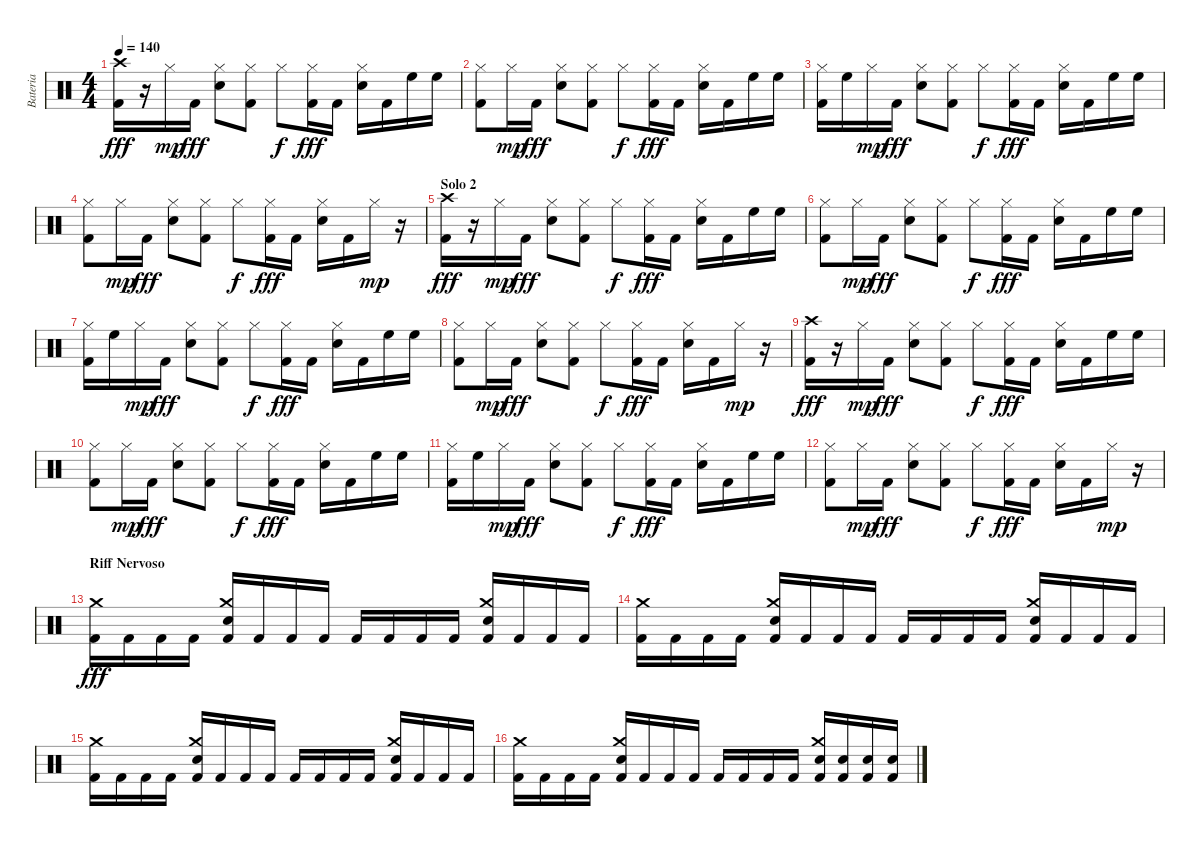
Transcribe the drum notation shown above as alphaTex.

\track ("Bateria" "Bateria") {instrument percussion}
\staff {score}
\articulation defaults
\ts (4 4)
\tempo 140
\clef neutral
\ks c
("Crash high (hit)" "Kick (hit) 2").16{dy fff} r.16 "Hi-Hat (closed)".16{dy mp} "Kick (hit) 2".16{dy fff} ("Hi-Hat (closed)" "Electric Snare (hit)").8 ("Hi-Hat (closed)" "Kick (hit) 2").8 "Hi-Hat (closed)".8{dy f} ("Hi-Hat (closed)" "Kick (hit) 2").16{dy fff} "Kick (hit) 2".16 ("Hi-Hat (closed)" "Electric Snare (hit)").16 "Kick (hit) 2".16 "High Floor Tom (hit)".16 "High Floor Tom (hit)".16 |
("Hi-Hat (closed)" "Kick (hit) 2").8 "Hi-Hat (closed)".16{dy mp} "Kick (hit) 2".16{dy fff} ("Hi-Hat (closed)" "Electric Snare (hit)").8 ("Hi-Hat (closed)" "Kick (hit) 2").8 "Hi-Hat (closed)".8{dy f} ("Hi-Hat (closed)" "Kick (hit) 2").16{dy fff} "Kick (hit) 2".16 ("Hi-Hat (closed)" "Electric Snare (hit)").16 "Kick (hit) 2".16 "High Floor Tom (hit)".16 "High Floor Tom (hit)".16 |
("Hi-Hat (closed)" "Kick (hit) 2").16 "High Floor Tom (hit)".16 "Hi-Hat (closed)".16{dy mp} "Kick (hit) 2".16{dy fff} ("Hi-Hat (closed)" "Electric Snare (hit)").8 ("Hi-Hat (closed)" "Kick (hit) 2").8 "Hi-Hat (closed)".8{dy f} ("Hi-Hat (closed)" "Kick (hit) 2").16{dy fff} "Kick (hit) 2".16 ("Hi-Hat (closed)" "Electric Snare (hit)").16 "Kick (hit) 2".16 "High Floor Tom (hit)".16 "High Floor Tom (hit)".16 |
("Hi-Hat (closed)" "Kick (hit) 2").8 "Hi-Hat (closed)".16{dy mp} "Kick (hit) 2".16{dy fff} ("Hi-Hat (closed)" "Electric Snare (hit)").8 ("Hi-Hat (closed)" "Kick (hit) 2").8 "Hi-Hat (closed)".8{dy f} ("Hi-Hat (closed)" "Kick (hit) 2").16{dy fff} "Kick (hit) 2".16 ("Hi-Hat (closed)" "Electric Snare (hit)").16 "Kick (hit) 2".16 "Hi-Hat (closed)".16{dy mp} r.16 |
\section ("" "Solo 2")
("Crash high (hit)" "Kick (hit) 2").16{dy fff} r.16 "Hi-Hat (closed)".16{dy mp} "Kick (hit) 2".16{dy fff} ("Hi-Hat (closed)" "Electric Snare (hit)").8 ("Hi-Hat (closed)" "Kick (hit) 2").8 "Hi-Hat (closed)".8{dy f} ("Hi-Hat (closed)" "Kick (hit) 2").16{dy fff} "Kick (hit) 2".16 ("Hi-Hat (closed)" "Electric Snare (hit)").16 "Kick (hit) 2".16 "High Floor Tom (hit)".16 "High Floor Tom (hit)".16 |
("Hi-Hat (closed)" "Kick (hit) 2").8 "Hi-Hat (closed)".16{dy mp} "Kick (hit) 2".16{dy fff} ("Hi-Hat (closed)" "Electric Snare (hit)").8 ("Hi-Hat (closed)" "Kick (hit) 2").8 "Hi-Hat (closed)".8{dy f} ("Hi-Hat (closed)" "Kick (hit) 2").16{dy fff} "Kick (hit) 2".16 ("Hi-Hat (closed)" "Electric Snare (hit)").16 "Kick (hit) 2".16 "High Floor Tom (hit)".16 "High Floor Tom (hit)".16 |
("Hi-Hat (closed)" "Kick (hit) 2").16 "High Floor Tom (hit)".16 "Hi-Hat (closed)".16{dy mp} "Kick (hit) 2".16{dy fff} ("Hi-Hat (closed)" "Electric Snare (hit)").8 ("Hi-Hat (closed)" "Kick (hit) 2").8 "Hi-Hat (closed)".8{dy f} ("Hi-Hat (closed)" "Kick (hit) 2").16{dy fff} "Kick (hit) 2".16 ("Hi-Hat (closed)" "Electric Snare (hit)").16 "Kick (hit) 2".16 "High Floor Tom (hit)".16 "High Floor Tom (hit)".16 |
("Hi-Hat (closed)" "Kick (hit) 2").8 "Hi-Hat (closed)".16{dy mp} "Kick (hit) 2".16{dy fff} ("Hi-Hat (closed)" "Electric Snare (hit)").8 ("Hi-Hat (closed)" "Kick (hit) 2").8 "Hi-Hat (closed)".8{dy f} ("Hi-Hat (closed)" "Kick (hit) 2").16{dy fff} "Kick (hit) 2".16 ("Hi-Hat (closed)" "Electric Snare (hit)").16 "Kick (hit) 2".16 "Hi-Hat (closed)".16{dy mp} r.16 |
("Crash high (hit)" "Kick (hit) 2").16{dy fff} r.16 "Hi-Hat (closed)".16{dy mp} "Kick (hit) 2".16{dy fff} ("Hi-Hat (closed)" "Electric Snare (hit)").8 ("Hi-Hat (closed)" "Kick (hit) 2").8 "Hi-Hat (closed)".8{dy f} ("Hi-Hat (closed)" "Kick (hit) 2").16{dy fff} "Kick (hit) 2".16 ("Hi-Hat (closed)" "Electric Snare (hit)").16 "Kick (hit) 2".16 "High Floor Tom (hit)".16 "High Floor Tom (hit)".16 |
("Hi-Hat (closed)" "Kick (hit) 2").8 "Hi-Hat (closed)".16{dy mp} "Kick (hit) 2".16{dy fff} ("Hi-Hat (closed)" "Electric Snare (hit)").8 ("Hi-Hat (closed)" "Kick (hit) 2").8 "Hi-Hat (closed)".8{dy f} ("Hi-Hat (closed)" "Kick (hit) 2").16{dy fff} "Kick (hit) 2".16 ("Hi-Hat (closed)" "Electric Snare (hit)").16 "Kick (hit) 2".16 "High Floor Tom (hit)".16 "High Floor Tom (hit)".16 |
("Hi-Hat (closed)" "Kick (hit) 2").16 "High Floor Tom (hit)".16 "Hi-Hat (closed)".16{dy mp} "Kick (hit) 2".16{dy fff} ("Hi-Hat (closed)" "Electric Snare (hit)").8 ("Hi-Hat (closed)" "Kick (hit) 2").8 "Hi-Hat (closed)".8{dy f} ("Hi-Hat (closed)" "Kick (hit) 2").16{dy fff} "Kick (hit) 2".16 ("Hi-Hat (closed)" "Electric Snare (hit)").16 "Kick (hit) 2".16 "High Floor Tom (hit)".16 "High Floor Tom (hit)".16 |
("Hi-Hat (closed)" "Kick (hit) 2").8 "Hi-Hat (closed)".16{dy mp} "Kick (hit) 2".16{dy fff} ("Hi-Hat (closed)" "Electric Snare (hit)").8 ("Hi-Hat (closed)" "Kick (hit) 2").8 "Hi-Hat (closed)".8{dy f} ("Hi-Hat (closed)" "Kick (hit) 2").16{dy fff} "Kick (hit) 2".16 ("Hi-Hat (closed)" "Electric Snare (hit)").16 "Kick (hit) 2".16 "Hi-Hat (closed)".16{dy mp} r.16 |
\section ("" "Riff Nervoso")
("Kick (hit) 2" "Crash medium (hit)").16{dy fff} "Kick (hit) 2".16 "Kick (hit) 2".16 "Kick (hit) 2".16 ("Kick (hit) 2" "Metronome (bell)" "Crash medium (hit)").16 "Kick (hit) 2".16 "Kick (hit) 2".16 "Kick (hit) 2".16 "Kick (hit) 2".16 "Kick (hit) 2".16 "Kick (hit) 2".16 "Kick (hit) 2".16 ("Kick (hit) 2" "Metronome (bell)" "Crash medium (hit)").16 "Kick (hit) 2".16 "Kick (hit) 2".16 "Kick (hit) 2".16 |
("Kick (hit) 2" "Crash medium (hit)").16 "Kick (hit) 2".16 "Kick (hit) 2".16 "Kick (hit) 2".16 ("Kick (hit) 2" "Metronome (bell)" "Crash medium (hit)").16 "Kick (hit) 2".16 "Kick (hit) 2".16 "Kick (hit) 2".16 "Kick (hit) 2".16 "Kick (hit) 2".16 "Kick (hit) 2".16 "Kick (hit) 2".16 ("Kick (hit) 2" "Metronome (bell)" "Crash medium (hit)").16 "Kick (hit) 2".16 "Kick (hit) 2".16 "Kick (hit) 2".16 |
("Kick (hit) 2" "Crash medium (hit)").16 "Kick (hit) 2".16 "Kick (hit) 2".16 "Kick (hit) 2".16 ("Kick (hit) 2" "Metronome (bell)" "Crash medium (hit)").16 "Kick (hit) 2".16 "Kick (hit) 2".16 "Kick (hit) 2".16 "Kick (hit) 2".16 "Kick (hit) 2".16 "Kick (hit) 2".16 "Kick (hit) 2".16 ("Kick (hit) 2" "Metronome (bell)" "Crash medium (hit)").16 "Kick (hit) 2".16 "Kick (hit) 2".16 "Kick (hit) 2".16 |
("Kick (hit) 2" "Crash medium (hit)").16 "Kick (hit) 2".16 "Kick (hit) 2".16 "Kick (hit) 2".16 ("Kick (hit) 2" "Metronome (bell)" "Crash medium (hit)").16 "Kick (hit) 2".16 "Kick (hit) 2".16 "Kick (hit) 2".16 "Kick (hit) 2".16 "Kick (hit) 2".16 "Kick (hit) 2".16 "Kick (hit) 2".16 ("Kick (hit) 2" "Metronome (bell)" "Crash medium (hit)").16 ("Kick (hit) 2" "Metronome (bell)").16 ("Kick (hit) 2" "Metronome (bell)").16 ("Kick (hit) 2" "Metronome (bell)").16
